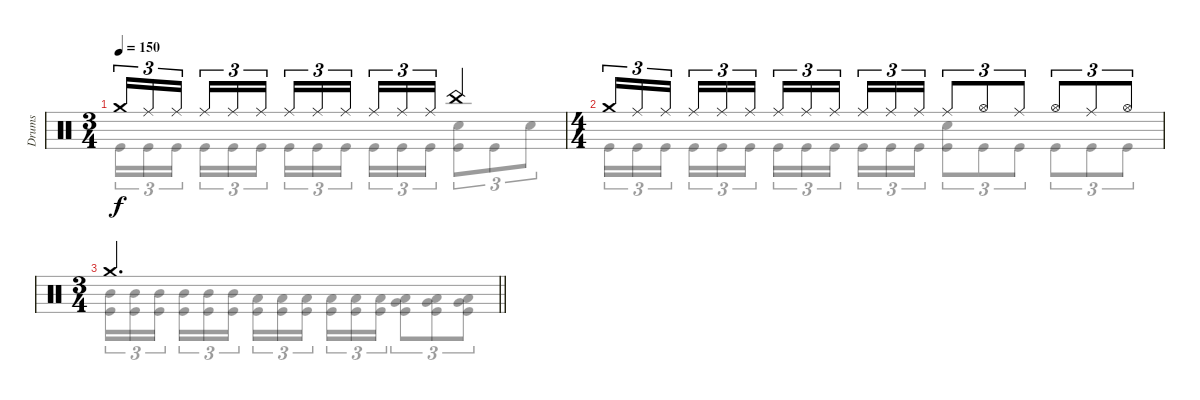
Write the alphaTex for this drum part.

\track ("Drums" "Drums") {instrument percussion}
\staff {score}
\articulation defaults
\voice
\ts (3 4)
\tempo 150
\clef neutral
\ks c "Crash medium (hit)".16{tu (3 2) dy f} "Ride (middle)".16{tu (3 2)} "Ride (middle)".16{tu (3 2) beam splitsecondary} "Ride (middle)".16{tu (3 2)} "Ride (middle)".16{tu (3 2)} "Ride (middle)".16{tu (3 2)} "Ride (middle)".16{tu (3 2)} "Ride (middle)".16{tu (3 2)} "Ride (middle)".16{tu (3 2) beam splitsecondary} "Ride (middle)".16{tu (3 2)} "Ride (middle)".16{tu (3 2)} "Ride (middle)".16{tu (3 2)} "China (hit)".4
|
\ts (4 4)
"Crash medium (hit)".16{tu (3 2)} "Ride (middle)".16{tu (3 2)} "Ride (middle)".16{tu (3 2) beam splitsecondary} "Ride (middle)".16{tu (3 2)} "Ride (middle)".16{tu (3 2)} "Ride (middle)".16{tu (3 2)} "Ride (middle)".16{tu (3 2)} "Ride (middle)".16{tu (3 2)} "Ride (middle)".16{tu (3 2) beam splitsecondary} "Ride (middle)".16{tu (3 2)} "Ride (middle)".16{tu (3 2)} "Ride (middle)".16{tu (3 2)} "Ride (middle)".8{tu (3 2)} "Hi-Hat (open)".8{tu (3 2)} "Ride (middle)".8{tu (3 2)} "Hi-Hat (open)".8{tu (3 2)} "Ride (middle)".8{tu (3 2)} "Hi-Hat (open)".8{tu (3 2)} |
\ts (3 4)
\barLineRight lightlight "Crash medium (hit)".2{d}
\voice
\clef neutral
\ottava regular
\simile none
\ks c "Kick (hit)".16{tu (3 2) dy f} "Kick (hit)".16{tu (3 2)} "Kick (hit)".16{tu (3 2) beam splitsecondary} "Kick (hit)".16{tu (3 2)} "Kick (hit)".16{tu (3 2)} "Kick (hit)".16{tu (3 2)} "Kick (hit)".16{tu (3 2)} "Kick (hit)".16{tu (3 2)} "Kick (hit)".16{tu (3 2) beam splitsecondary} "Kick (hit)".16{tu (3 2)} "Kick (hit)".16{tu (3 2)} "Kick (hit)".16{tu (3 2)}
("Snare (hit) 2" "Kick (hit)").8{tu (3 2)} "Kick (hit)".8{tu (3 2)} "Snare (hit) 2".8{tu (3 2)} |
"Kick (hit)".16{tu (3 2)} "Kick (hit)".16{tu (3 2)} "Kick (hit)".16{tu (3 2) beam splitsecondary} "Kick (hit)".16{tu (3 2)} "Kick (hit)".16{tu (3 2)} "Kick (hit)".16{tu (3 2)} "Kick (hit)".16{tu (3 2)} "Kick (hit)".16{tu (3 2)} "Kick (hit)".16{tu (3 2) beam splitsecondary} "Kick (hit)".16{tu (3 2)} "Kick (hit)".16{tu (3 2)} "Kick (hit)".16{tu (3 2)} ("Snare (hit) 2" "Kick (hit)").8{tu (3 2)} "Kick (hit)".8{tu (3 2)} "Kick (hit)".8{tu (3 2)} "Kick (hit)".8{tu (3 2)} "Kick (hit)".8{tu (3 2)} "Kick (hit)".8{tu (3 2)} |
\barLineRight lightlight
("Mid Tom (hit)" "Kick (hit)").16{tu (3 2)} ("Mid Tom (hit)" "Kick (hit)").16{tu (3 2)} ("Mid Tom (hit)" "Kick (hit)").16{tu (3 2) beam splitsecondary} ("Mid Tom (hit)" "Kick (hit)").16{tu (3 2)} ("Mid Tom (hit)" "Kick (hit)").16{tu (3 2)} ("Mid Tom (hit)" "Kick (hit)").16{tu (3 2)} ("Low Tom (hit)" "Kick (hit)").16{tu (3 2)} ("Low Tom (hit)" "Kick (hit)").16{tu (3 2)} ("Low Tom (hit)" "Kick (hit)").16{tu (3 2) beam splitsecondary} ("Low Tom (hit)" "Kick (hit)").16{tu (3 2)} ("Low Tom (hit)" "Kick (hit)").16{tu (3 2)} ("Low Tom (hit)" "Kick (hit)").16{tu (3 2)} ("Very Low Tom (hit)" "Low Tom (hit)" "Kick (hit)").8{tu (3 2)} ("Very Low Tom (hit)" "Low Tom (hit)" "Kick (hit)").8{tu (3 2)} ("Very Low Tom (hit)" "Low Tom (hit)" "Kick (hit)").8{tu (3 2)}
